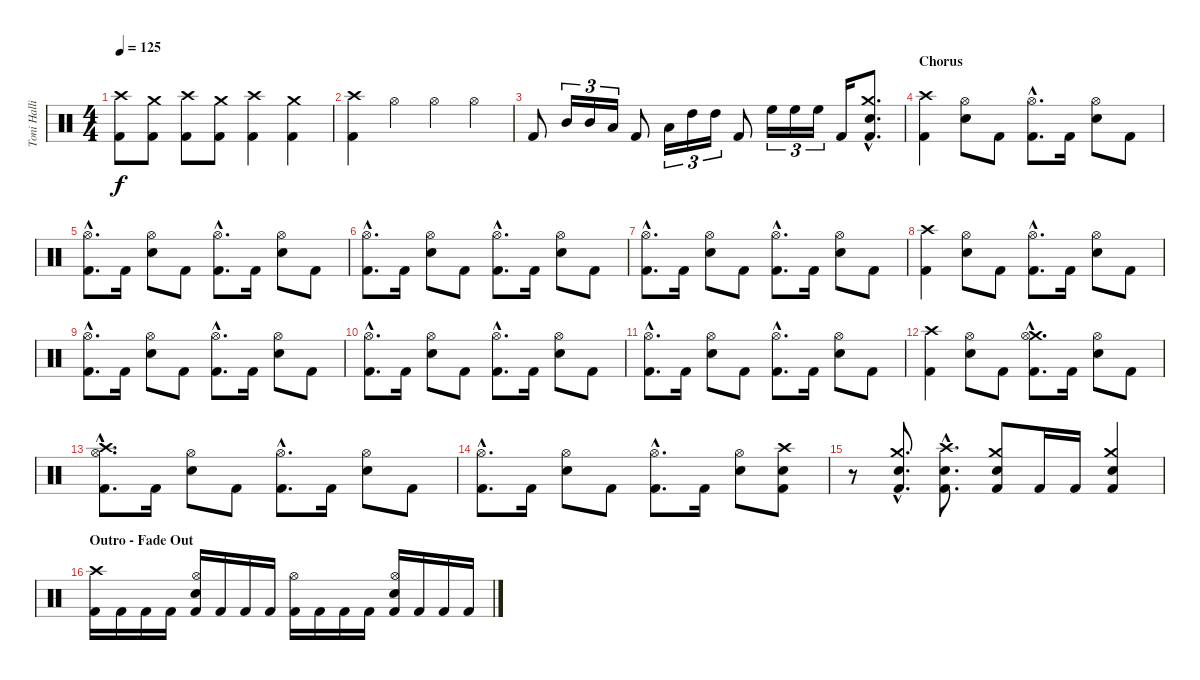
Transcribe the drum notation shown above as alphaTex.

\track ("Toni Hallio" "Toni Halli") {instrument percussion}
\staff {score}
\articulation defaults
\ts (4 4)
\tempo 125
\clef neutral
\ks c
("Crash high (hit)" "Kick (hit) 2").8{dy f} ("Crash medium (hit)" "Kick (hit) 2").8 ("Crash high (hit)" "Kick (hit) 2").8 ("Crash medium (hit)" "Kick (hit) 2").8 ("Crash high (hit)" "Kick (hit) 2").4 ("Crash medium (hit)" "Kick (hit) 2").4 |
("Crash high (hit)" "Kick (hit) 2").4 "Hi-Hat (open)".4 "Hi-Hat (open)".4 "Hi-Hat (open)".4 |
"Kick (hit) 2".8 "Mid Tom (hit)".16{tu (3 2)} "Mid Tom (hit)".16{tu (3 2)} "Low Tom (hit)".16{tu (3 2)} "Kick (hit) 2".8 "Low Tom (hit)".16{tu (3 2)} "High Tom (hit)".16{tu (3 2)} "High Tom (hit)".16{tu (3 2)} "Kick (hit) 2".8 "High Floor Tom (hit)".16{tu (3 2)} "High Floor Tom (hit)".16{tu (3 2)} "High Floor Tom (hit)".16{tu (3 2)} "Kick (hit) 2".16 ("Snare (hit) 2"{hac} "Crash medium (hit)"{hac} "Kick (hit) 2"{hac}).8{d} |
\section ("" "Chorus")
("Crash high (hit)" "Kick (hit) 2").4 ("Snare (hit) 2" "Hi-Hat (open)").8 "Kick (hit) 2".8 ("Hi-Hat (open)"{hac} "Kick (hit) 2"{hac}).8{d} "Kick (hit) 2".16 ("Snare (hit) 2" "Hi-Hat (open)").8 "Kick (hit) 2".8 |
("Hi-Hat (open)"{hac} "Kick (hit) 2"{hac}).8{d} "Kick (hit) 2".16 ("Snare (hit) 2" "Hi-Hat (open)").8 "Kick (hit) 2".8 ("Hi-Hat (open)"{hac} "Kick (hit) 2"{hac}).8{d} "Kick (hit) 2".16 ("Snare (hit) 2" "Hi-Hat (open)").8 "Kick (hit) 2".8 |
("Hi-Hat (open)"{hac} "Kick (hit) 2"{hac}).8{d} "Kick (hit) 2".16 ("Snare (hit) 2" "Hi-Hat (open)").8 "Kick (hit) 2".8 ("Hi-Hat (open)"{hac} "Kick (hit) 2"{hac}).8{d} "Kick (hit) 2".16 ("Snare (hit) 2" "Hi-Hat (open)").8 "Kick (hit) 2".8 |
("Hi-Hat (open)"{hac} "Kick (hit) 2"{hac}).8{d} "Kick (hit) 2".16 ("Snare (hit) 2" "Hi-Hat (open)").8 "Kick (hit) 2".8 ("Hi-Hat (open)"{hac} "Kick (hit) 2"{hac}).8{d} "Kick (hit) 2".16 ("Snare (hit) 2" "Hi-Hat (open)").8 "Kick (hit) 2".8 |
("Crash high (hit)" "Kick (hit) 2").4 ("Snare (hit) 2" "Hi-Hat (open)").8 "Kick (hit) 2".8 ("Hi-Hat (open)"{hac} "Kick (hit) 2"{hac}).8{d} "Kick (hit) 2".16 ("Snare (hit) 2" "Hi-Hat (open)").8 "Kick (hit) 2".8 |
("Hi-Hat (open)"{hac} "Kick (hit) 2"{hac}).8{d} "Kick (hit) 2".16 ("Snare (hit) 2" "Hi-Hat (open)").8 "Kick (hit) 2".8 ("Hi-Hat (open)"{hac} "Kick (hit) 2"{hac}).8{d} "Kick (hit) 2".16 ("Snare (hit) 2" "Hi-Hat (open)").8 "Kick (hit) 2".8 |
("Hi-Hat (open)"{hac} "Kick (hit) 2"{hac}).8{d} "Kick (hit) 2".16 ("Snare (hit) 2" "Hi-Hat (open)").8 "Kick (hit) 2".8 ("Hi-Hat (open)"{hac} "Kick (hit) 2"{hac}).8{d} "Kick (hit) 2".16 ("Snare (hit) 2" "Hi-Hat (open)").8 "Kick (hit) 2".8 |
("Hi-Hat (open)"{hac} "Kick (hit) 2"{hac}).8{d} "Kick (hit) 2".16 ("Snare (hit) 2" "Hi-Hat (open)").8 "Kick (hit) 2".8 ("Hi-Hat (open)"{hac} "Kick (hit) 2"{hac}).8{d} "Kick (hit) 2".16 ("Snare (hit) 2" "Hi-Hat (open)").8 "Kick (hit) 2".8 |
("Crash high (hit)" "Kick (hit) 2").4 ("Snare (hit) 2" "Hi-Hat (open)").8 "Kick (hit) 2".8 ("Crash medium (hit)"{hac} "Hi-Hat (open)"{hac} "Kick (hit) 2"{hac}).8{d} "Kick (hit) 2".16 ("Snare (hit) 2" "Hi-Hat (open)").8 "Kick (hit) 2".8 |
("Crash high (hit)"{hac} "Hi-Hat (open)"{hac} "Kick (hit) 2"{hac}).8{d} "Kick (hit) 2".16 ("Snare (hit) 2" "Hi-Hat (open)").8 "Kick (hit) 2".8 ("Hi-Hat (open)"{hac} "Kick (hit) 2"{hac}).8{d} "Kick (hit) 2".16 ("Snare (hit) 2" "Hi-Hat (open)").8 "Kick (hit) 2".8 |
("Hi-Hat (open)"{hac} "Kick (hit) 2"{hac}).8{d} "Kick (hit) 2".16 ("Snare (hit) 2" "Hi-Hat (open)").8 "Kick (hit) 2".8 ("Hi-Hat (open)"{hac} "Kick (hit) 2"{hac}).8{d} "Kick (hit) 2".16 ("Snare (hit) 2" "Hi-Hat (open)").8 ("Snare (hit) 2" "Crash high (hit)" "Kick (hit) 2").8 |
r.8 ("Snare (hit) 2"{hac} "Crash medium (hit)"{hac} "Kick (hit) 2"{hac}).8{d} ("Snare (hit) 2"{hac} "Crash high (hit)"{hac} "Kick (hit) 2"{hac}).8{d} ("Snare (hit) 2" "Crash medium (hit)" "Kick (hit) 2").8 "Kick (hit) 2".16 "Kick (hit) 2".16 ("Snare (hit) 2" "Crash medium (hit)" "Kick (hit) 2").4 |
\section ("" "Outro - Fade Out")
("Crash high (hit)" "Kick (hit) 2").16 "Kick (hit) 2".16 "Kick (hit) 2".16 "Kick (hit) 2".16 ("Snare (hit) 2" "Hi-Hat (open)" "Kick (hit) 2").16 "Kick (hit) 2".16 "Kick (hit) 2".16 "Kick (hit) 2".16 ("Hi-Hat (open)" "Kick (hit) 2").16 "Kick (hit) 2".16 "Kick (hit) 2".16 "Kick (hit) 2".16 ("Snare (hit) 2" "Hi-Hat (open)" "Kick (hit) 2").16 "Kick (hit) 2".16 "Kick (hit) 2".16 "Kick (hit) 2".16
